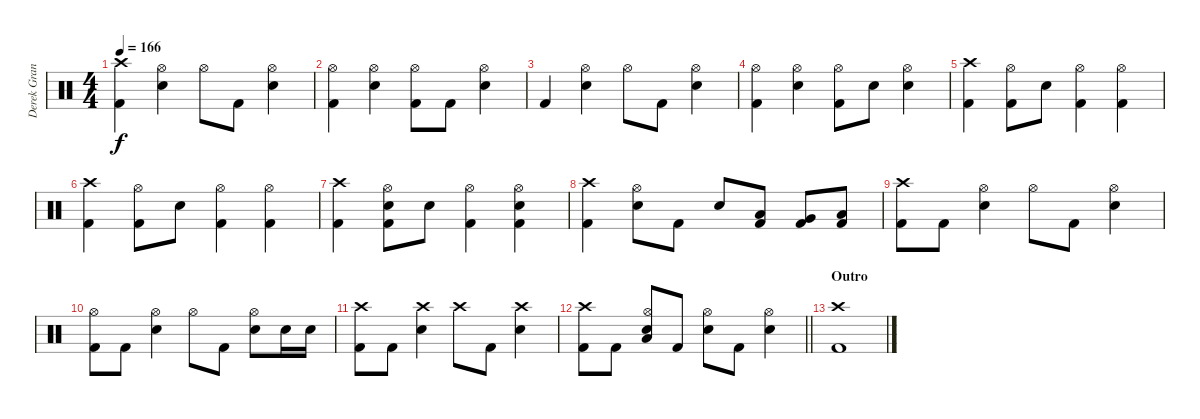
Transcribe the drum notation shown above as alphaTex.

\track ("Derek Grant - Drums" "Derek Gran") {instrument percussion}
\staff {score}
\articulation defaults
\ts (4 4)
\tempo 166
\clef neutral
\ks c
("Crash high (hit)" "Kick (hit) 2").4{dy f} ("Snare (hit) 2" "Hi-Hat (open)").4 "Hi-Hat (open)".8 "Kick (hit) 2".8 ("Snare (hit) 2" "Hi-Hat (open)").4 |
("Hi-Hat (open)" "Kick (hit) 2").4 ("Snare (hit) 2" "Hi-Hat (open)").4 ("Hi-Hat (open)" "Kick (hit) 2").8 "Kick (hit) 2".8 ("Snare (hit) 2" "Hi-Hat (open)").4 |
"Kick (hit) 2".4 ("Snare (hit) 2" "Hi-Hat (open)").4 "Hi-Hat (open)".8 "Kick (hit) 2".8 ("Snare (hit) 2" "Hi-Hat (open)").4 |
("Hi-Hat (open)" "Kick (hit) 2").4 ("Snare (hit) 2" "Hi-Hat (open)").4 ("Hi-Hat (open)" "Kick (hit) 2").8 "Snare (hit) 2".8 ("Snare (hit) 2" "Hi-Hat (open)").4 |
("Crash high (hit)" "Kick (hit) 2").4 ("Hi-Hat (open)" "Kick (hit) 2").8 "Snare (hit) 2".8 ("Hi-Hat (open)" "Kick (hit) 2").4 ("Hi-Hat (open)" "Kick (hit) 2").4 |
("Crash high (hit)" "Kick (hit) 2").4 ("Hi-Hat (open)" "Kick (hit) 2").8 "Snare (hit) 2".8 ("Hi-Hat (open)" "Kick (hit) 2").4 ("Hi-Hat (open)" "Kick (hit) 2").4 |
("Crash high (hit)" "Kick (hit) 2").4 ("Hi-Hat (open)" "Kick (hit) 2" "Snare (hit) 2").8 "Snare (hit) 2".8 ("Hi-Hat (open)" "Kick (hit) 2").4 ("Snare (hit) 2" "Hi-Hat (open)" "Kick (hit) 2").4 |
("Crash high (hit)" "Kick (hit) 2").4 ("Snare (hit) 2" "Hi-Hat (open)").8 "Kick (hit) 2".8 "Snare (hit) 2".8 ("Low Tom (hit)" "Kick (hit) 2").8 ("Very Low Tom (hit)" "Kick (hit) 2").8 ("Low Floor Tom (hit)" "Kick (hit) 2").8 |
("Crash high (hit)" "Kick (hit) 2").8 "Kick (hit) 2".8 ("Snare (hit) 2" "Hi-Hat (open)").4 "Hi-Hat (open)".8 "Kick (hit) 2".8 ("Snare (hit) 2" "Hi-Hat (open)").4 |
("Hi-Hat (open)" "Kick (hit) 2").8 "Kick (hit) 2".8 ("Snare (hit) 2" "Hi-Hat (open)").4 "Hi-Hat (open)".8 "Kick (hit) 2".8 ("Snare (hit) 2" "Hi-Hat (open)").8 "Snare (hit) 2".16 "Snare (hit) 2".16 |
("Crash high (hit)" "Kick (hit) 2").8 "Kick (hit) 2".8 ("Snare (hit) 2" "Crash high (hit)").4 "Crash high (hit)".8 "Kick (hit) 2".8 ("Snare (hit) 2" "Crash high (hit)").4 |
\barLineRight lightlight
("Kick (hit) 2" "Crash high (hit)").8 "Kick (hit) 2".8 ("Snare (hit) 2" "Low Floor Tom (hit)" "Hi-Hat (open)").8 "Kick (hit) 2".8 ("Snare (hit) 2" "Hi-Hat (open)").8 "Kick (hit) 2".8 ("Snare (hit) 2" "Hi-Hat (open)").4 |
\section ("" "Outro")
("Crash high (hit)" "Kick (hit) 2").1
